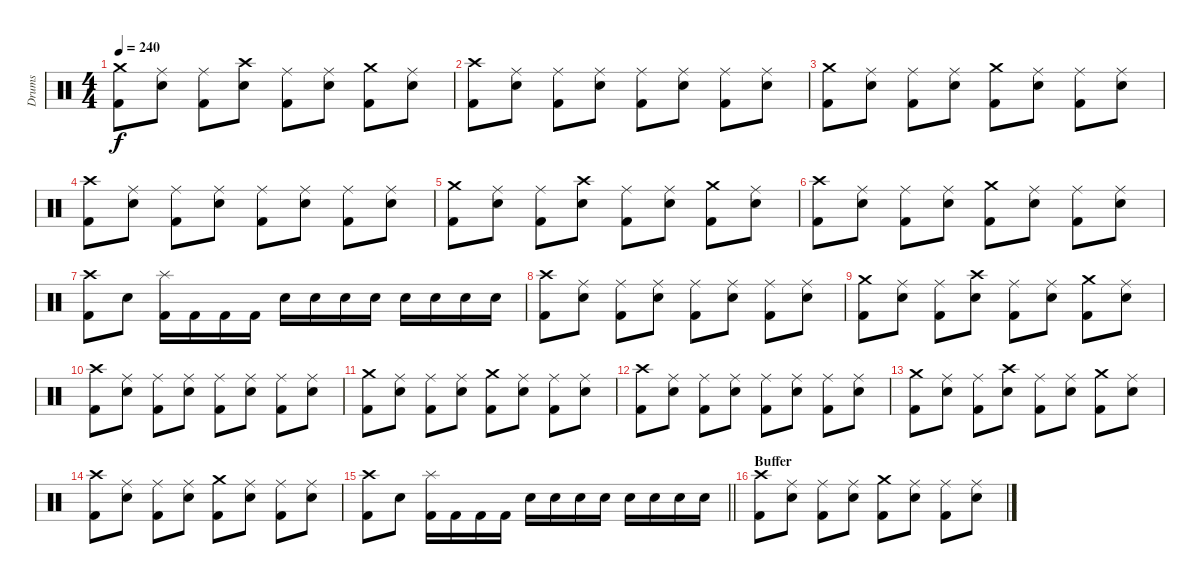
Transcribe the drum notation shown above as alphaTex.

\track ("Drums" "Drums") {instrument percussion}
\staff {score}
\articulation defaults
\ts (4 4)
\tempo 240
\clef neutral
\ks c
("Crash medium (hit)" "Kick (hit) 2").8{dy f} ("Ride (middle)" "Snare (hit) 2").8 ("Ride (middle)" "Kick (hit) 2").8 ("Crash high (hit)" "Snare (hit) 2").8 ("Ride (middle)" "Kick (hit) 2").8 ("Ride (middle)" "Snare (hit) 2").8 ("Crash medium (hit)" "Kick (hit) 2").8 ("Ride (middle)" "Snare (hit) 2").8 |
("Crash high (hit)" "Kick (hit) 2").8 ("Ride (middle)" "Snare (hit) 2").8 ("Ride (middle)" "Kick (hit) 2").8 ("Ride (middle)" "Snare (hit) 2").8 ("Ride (middle)" "Kick (hit) 2").8 ("Ride (middle)" "Snare (hit) 2").8 ("Ride (middle)" "Kick (hit) 2").8 ("Ride (middle)" "Snare (hit) 2").8 |
("Crash medium (hit)" "Kick (hit) 2").8 ("Ride (middle)" "Snare (hit) 2").8 ("Ride (middle)" "Kick (hit) 2").8 ("Ride (middle)" "Snare (hit) 2").8 ("Crash medium (hit)" "Kick (hit) 2").8 ("Ride (middle)" "Snare (hit) 2").8 ("Ride (middle)" "Kick (hit) 2").8 ("Ride (middle)" "Snare (hit) 2").8 |
("Crash high (hit)" "Kick (hit) 2").8 ("Ride (middle)" "Snare (hit) 2").8 ("Ride (middle)" "Kick (hit) 2").8 ("Ride (middle)" "Snare (hit) 2").8 ("Ride (middle)" "Kick (hit) 2").8 ("Ride (middle)" "Snare (hit) 2").8 ("Ride (middle)" "Kick (hit) 2").8 ("Ride (middle)" "Snare (hit) 2").8 |
("Crash medium (hit)" "Kick (hit) 2").8 ("Ride (middle)" "Snare (hit) 2").8 ("Ride (middle)" "Kick (hit) 2").8 ("Crash high (hit)" "Snare (hit) 2").8 ("Ride (middle)" "Kick (hit) 2").8 ("Ride (middle)" "Snare (hit) 2").8 ("Crash medium (hit)" "Kick (hit) 2").8 ("Ride (middle)" "Snare (hit) 2").8 |
("Crash high (hit)" "Kick (hit) 2").8 ("Ride (middle)" "Snare (hit) 2").8 ("Ride (middle)" "Kick (hit) 2").8 ("Ride (middle)" "Snare (hit) 2").8 ("Crash medium (hit)" "Kick (hit) 2").8 ("Ride (middle)" "Snare (hit) 2").8 ("Ride (middle)" "Kick (hit) 2").8 ("Ride (middle)" "Snare (hit) 2").8 |
("Crash high (hit)" "Kick (hit) 2").8 "Snare (hit) 2".8 ("Splash (hit)" "Kick (hit) 2").16 "Kick (hit) 2".16 "Kick (hit) 2".16 "Kick (hit) 2".16 "Snare (hit) 2".16 "Snare (hit) 2".16 "Snare (hit) 2".16 "Snare (hit) 2".16 "Snare (hit) 2".16 "Snare (hit) 2".16 "Snare (hit) 2".16 "Snare (hit) 2".16 |
("Crash high (hit)" "Kick (hit) 2").8 ("Ride (middle)" "Snare (hit) 2").8 ("Ride (middle)" "Kick (hit) 2").8 ("Ride (middle)" "Snare (hit) 2").8 ("Ride (middle)" "Kick (hit) 2").8 ("Ride (middle)" "Snare (hit) 2").8 ("Ride (middle)" "Kick (hit) 2").8 ("Ride (middle)" "Snare (hit) 2").8 |
("Crash medium (hit)" "Kick (hit) 2").8 ("Ride (middle)" "Snare (hit) 2").8 ("Ride (middle)" "Kick (hit) 2").8 ("Crash high (hit)" "Snare (hit) 2").8 ("Ride (middle)" "Kick (hit) 2").8 ("Ride (middle)" "Snare (hit) 2").8 ("Crash medium (hit)" "Kick (hit) 2").8 ("Ride (middle)" "Snare (hit) 2").8 |
("Crash high (hit)" "Kick (hit) 2").8 ("Ride (middle)" "Snare (hit) 2").8 ("Ride (middle)" "Kick (hit) 2").8 ("Ride (middle)" "Snare (hit) 2").8 ("Ride (middle)" "Kick (hit) 2").8 ("Ride (middle)" "Snare (hit) 2").8 ("Ride (middle)" "Kick (hit) 2").8 ("Ride (middle)" "Snare (hit) 2").8 |
("Crash medium (hit)" "Kick (hit) 2").8 ("Ride (middle)" "Snare (hit) 2").8 ("Ride (middle)" "Kick (hit) 2").8 ("Ride (middle)" "Snare (hit) 2").8 ("Crash medium (hit)" "Kick (hit) 2").8 ("Ride (middle)" "Snare (hit) 2").8 ("Ride (middle)" "Kick (hit) 2").8 ("Ride (middle)" "Snare (hit) 2").8 |
("Crash high (hit)" "Kick (hit) 2").8 ("Ride (middle)" "Snare (hit) 2").8 ("Ride (middle)" "Kick (hit) 2").8 ("Ride (middle)" "Snare (hit) 2").8 ("Ride (middle)" "Kick (hit) 2").8 ("Ride (middle)" "Snare (hit) 2").8 ("Ride (middle)" "Kick (hit) 2").8 ("Ride (middle)" "Snare (hit) 2").8 |
("Crash medium (hit)" "Kick (hit) 2").8 ("Ride (middle)" "Snare (hit) 2").8 ("Ride (middle)" "Kick (hit) 2").8 ("Crash high (hit)" "Snare (hit) 2").8 ("Ride (middle)" "Kick (hit) 2").8 ("Ride (middle)" "Snare (hit) 2").8 ("Crash medium (hit)" "Kick (hit) 2").8 ("Ride (middle)" "Snare (hit) 2").8 |
("Crash high (hit)" "Kick (hit) 2").8 ("Ride (middle)" "Snare (hit) 2").8 ("Ride (middle)" "Kick (hit) 2").8 ("Ride (middle)" "Snare (hit) 2").8 ("Crash medium (hit)" "Kick (hit) 2").8 ("Ride (middle)" "Snare (hit) 2").8 ("Ride (middle)" "Kick (hit) 2").8 ("Ride (middle)" "Snare (hit) 2").8 |
\barLineRight lightlight
("Crash high (hit)" "Kick (hit) 2").8 "Snare (hit) 2".8 ("Splash (hit)" "Kick (hit) 2").16 "Kick (hit) 2".16 "Kick (hit) 2".16 "Kick (hit) 2".16 "Snare (hit) 2".16 "Snare (hit) 2".16 "Snare (hit) 2".16 "Snare (hit) 2".16 "Snare (hit) 2".16 "Snare (hit) 2".16 "Snare (hit) 2".16 "Snare (hit) 2".16 |
\section ("" "Buffer")
("Crash high (hit)" "Kick (hit) 2").8 ("Ride (middle)" "Snare (hit) 2").8 ("Ride (middle)" "Kick (hit) 2").8 ("Ride (middle)" "Snare (hit) 2").8 ("Crash medium (hit)" "Kick (hit) 2").8 ("Ride (middle)" "Snare (hit) 2").8 ("Ride (middle)" "Kick (hit) 2").8 ("Ride (middle)" "Snare (hit) 2").8
